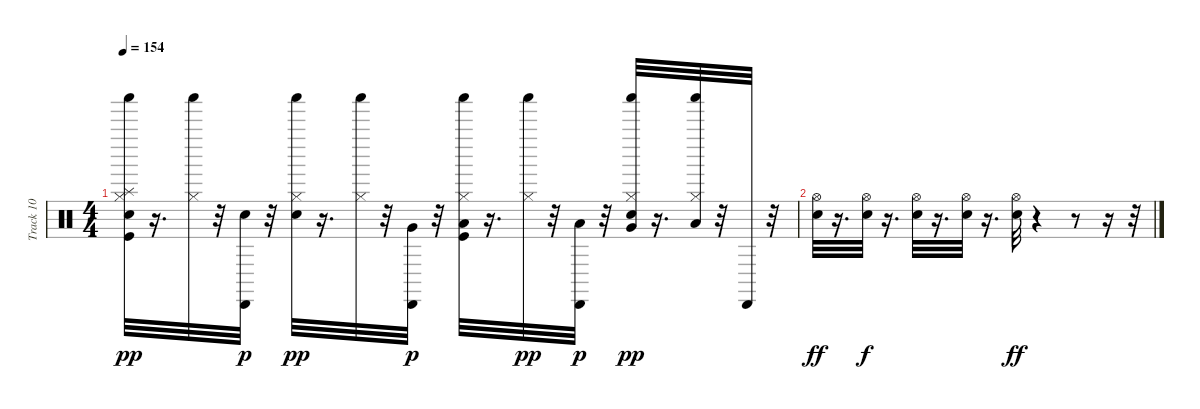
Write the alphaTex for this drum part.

\track ("Track 10" "Track 10") {instrument percussion}
\staff {score}
\articulation defaults
\ts (4 4)
\tempo 154
\clef neutral
\ks c
("Kick (hit)" "Electric Snare (hit)" "Hi-Hat (closed)" "Splash (hit)" "Shaker (hit)").32{dy pp} r.16{d} ("Hi-Hat (closed)" "Shaker (hit)").32 r.32 ("Electric Snare (hit)" "Cabasa (hit)").32{dy p} r.32 ("Electric Snare (hit)" "Hi-Hat (closed)" "Shaker (hit)").32{dy pp} r.16{d} ("Hi-Hat (closed)" "Shaker (hit)").32 r.32 ("Very Low Tom (hit)" "Cabasa (hit)").32{dy p} r.32 ("Kick (hit)" "Hi-Hat (closed)" "Low Tom (hit)" "Shaker (hit)").32 r.16{d} ("Hi-Hat (closed)" "Shaker (hit)").32{dy pp} r.32 ("Low Floor Tom (hit)" "Cabasa (hit)").32{dy p} r.32 ("Electric Snare (hit)" "Hi-Hat (closed)" "Very Low Tom (hit)" "Shaker (hit)").32{dy pp} r.16{d} ("Low Floor Tom (hit)" "Hi-Hat (closed)" "Shaker (hit)").32 r.32 "Cabasa (hit)".32 r.32 |
("Electric Snare (hit)" "Hi-Hat (open)").32{dy ff} r.16{d} ("Electric Snare (hit)" "Hi-Hat (open)").32{dy f} r.16{d} ("Electric Snare (hit)" "Hi-Hat (open)").32 r.16{d} ("Electric Snare (hit)" "Hi-Hat (open)").32 r.16{d} ("Electric Snare (hit)" "Hi-Hat (open)").32{dy ff} r.4 r.8 r.16 r.32
